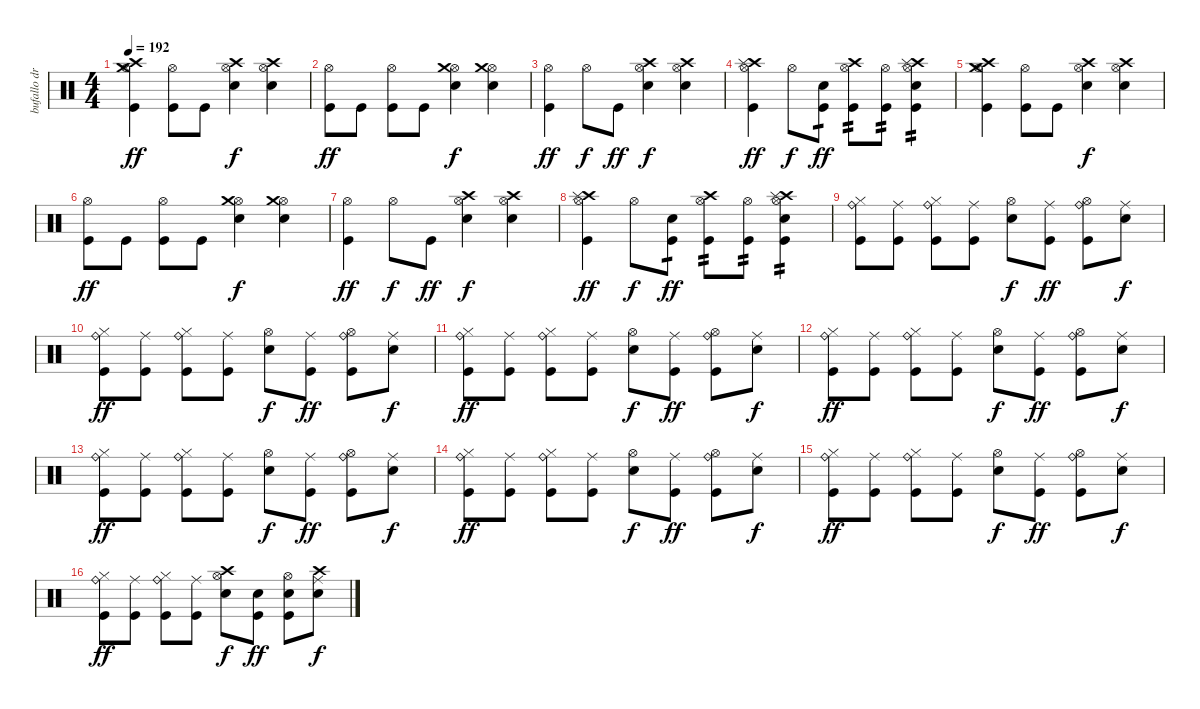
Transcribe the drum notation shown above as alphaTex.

\track ("bufallo drums" "bufallo dr") {instrument percussion}
\staff {score}
\articulation defaults
\ts (4 4)
\tempo 192
\clef neutral
\ks c
("Hi-Hat (open)" "Crash medium (hit)" "Crash high (hit)" "Kick (hit)").4{dy ff} ("Hi-Hat (open)" "Kick (hit)").8 "Kick (hit)".8 ("Hi-Hat (open)" "Electric Snare (hit)" "Crash high (hit)").4{dy f} ("Hi-Hat (open)" "Electric Snare (hit)" "Crash high (hit)").4 |
("Hi-Hat (open)" "Kick (hit)").8{dy ff} "Kick (hit)".8 ("Hi-Hat (open)" "Kick (hit)").8 "Kick (hit)".8 ("Hi-Hat (open)" "Electric Snare (hit)" "Crash medium (hit)").4{dy f} ("Hi-Hat (open)" "Electric Snare (hit)" "Crash medium (hit)").4 |
("Hi-Hat (open)" "Kick (hit)").4{dy ff} "Hi-Hat (open)".8{dy f} "Kick (hit)".8{dy ff} ("Hi-Hat (open)" "Electric Snare (hit)" "Crash high (hit)").4{dy f} ("Hi-Hat (open)" "Electric Snare (hit)" "Crash high (hit)").4 |
("Hi-Hat (open)" "Crash high (hit)" "Splash (hit)" "Kick (hit)").4{dy ff} "Hi-Hat (open)".8{dy f} ("Electric Snare (hit)" "Kick (hit)").8{tp 1 dy ff} ("Hi-Hat (open)" "Crash high (hit)" "Kick (hit)").8{tp 2} ("Hi-Hat (open)" "Kick (hit)").8{tp 2} ("Hi-Hat (open)" "Crash high (hit)" "Splash (hit)" "Electric Snare (hit)" "Kick (hit)").4{tp 2} |
("Hi-Hat (open)" "Crash medium (hit)" "Crash high (hit)" "Kick (hit)").4 ("Hi-Hat (open)" "Kick (hit)").8 "Kick (hit)".8 ("Hi-Hat (open)" "Electric Snare (hit)" "Crash high (hit)").4{dy f} ("Hi-Hat (open)" "Electric Snare (hit)" "Crash high (hit)").4 |
("Hi-Hat (open)" "Kick (hit)").8{dy ff} "Kick (hit)".8 ("Hi-Hat (open)" "Kick (hit)").8 "Kick (hit)".8 ("Hi-Hat (open)" "Electric Snare (hit)" "Crash medium (hit)").4{dy f} ("Hi-Hat (open)" "Electric Snare (hit)" "Crash medium (hit)").4 |
("Hi-Hat (open)" "Kick (hit)").4{dy ff} "Hi-Hat (open)".8{dy f} "Kick (hit)".8{dy ff} ("Hi-Hat (open)" "Electric Snare (hit)" "Crash high (hit)").4{dy f} ("Hi-Hat (open)" "Electric Snare (hit)" "Crash high (hit)").4 |
("Hi-Hat (open)" "Crash high (hit)" "Splash (hit)" "Kick (hit)").4{dy ff} "Hi-Hat (open)".8{dy f} ("Electric Snare (hit)" "Kick (hit)").8{tp 1 dy ff} ("Hi-Hat (open)" "Crash high (hit)" "Kick (hit)").8{tp 2} ("Hi-Hat (open)" "Kick (hit)").8{tp 2} ("Hi-Hat (open)" "Crash high (hit)" "Splash (hit)" "Electric Snare (hit)" "Kick (hit)").4{tp 2} |
("Hi-Hat (closed)" "Ride (bell)" "Kick (hit)").8 ("Ride (middle)" "Kick (hit)").8 ("Hi-Hat (closed)" "Ride (bell)" "Kick (hit)").8 ("Ride (middle)" "Kick (hit)").8 ("Hi-Hat (open)" "Electric Snare (hit)").8{dy f} ("Ride (middle)" "Kick (hit)").8{dy ff} ("Hi-Hat (open)" "Ride (bell)" "Kick (hit)").8 ("Ride (middle)" "Electric Snare (hit)").8{dy f} |
("Hi-Hat (closed)" "Ride (bell)" "Kick (hit)").8{dy ff} ("Ride (middle)" "Kick (hit)").8 ("Hi-Hat (closed)" "Ride (bell)" "Kick (hit)").8 ("Ride (middle)" "Kick (hit)").8 ("Hi-Hat (open)" "Electric Snare (hit)").8{dy f} ("Ride (middle)" "Kick (hit)").8{dy ff} ("Hi-Hat (open)" "Ride (bell)" "Kick (hit)").8 ("Ride (middle)" "Electric Snare (hit)").8{dy f} |
("Hi-Hat (closed)" "Ride (bell)" "Kick (hit)").8{dy ff} ("Ride (middle)" "Kick (hit)").8 ("Hi-Hat (closed)" "Ride (bell)" "Kick (hit)").8 ("Ride (middle)" "Kick (hit)").8 ("Hi-Hat (open)" "Electric Snare (hit)").8{dy f} ("Ride (middle)" "Kick (hit)").8{dy ff} ("Hi-Hat (open)" "Ride (bell)" "Kick (hit)").8 ("Ride (middle)" "Electric Snare (hit)").8{dy f} |
("Hi-Hat (closed)" "Ride (bell)" "Kick (hit)").8{dy ff} ("Ride (middle)" "Kick (hit)").8 ("Hi-Hat (closed)" "Ride (bell)" "Kick (hit)").8 ("Ride (middle)" "Kick (hit)").8 ("Hi-Hat (open)" "Electric Snare (hit)").8{dy f} ("Ride (middle)" "Kick (hit)").8{dy ff} ("Hi-Hat (open)" "Ride (bell)" "Kick (hit)").8 ("Ride (middle)" "Electric Snare (hit)").8{dy f} |
("Hi-Hat (closed)" "Ride (bell)" "Kick (hit)").8{dy ff} ("Ride (middle)" "Kick (hit)").8 ("Hi-Hat (closed)" "Ride (bell)" "Kick (hit)").8 ("Ride (middle)" "Kick (hit)").8 ("Hi-Hat (open)" "Electric Snare (hit)").8{dy f} ("Ride (middle)" "Kick (hit)").8{dy ff} ("Hi-Hat (open)" "Ride (bell)" "Kick (hit)").8 ("Ride (middle)" "Electric Snare (hit)").8{dy f} |
("Hi-Hat (closed)" "Ride (bell)" "Kick (hit)").8{dy ff} ("Ride (middle)" "Kick (hit)").8 ("Hi-Hat (closed)" "Ride (bell)" "Kick (hit)").8 ("Ride (middle)" "Kick (hit)").8 ("Hi-Hat (open)" "Electric Snare (hit)").8{dy f} ("Ride (middle)" "Kick (hit)").8{dy ff} ("Hi-Hat (open)" "Ride (bell)" "Kick (hit)").8 ("Ride (middle)" "Electric Snare (hit)").8{dy f} |
("Hi-Hat (closed)" "Ride (bell)" "Kick (hit)").8{dy ff} ("Ride (middle)" "Kick (hit)").8 ("Hi-Hat (closed)" "Ride (bell)" "Kick (hit)").8 ("Ride (middle)" "Kick (hit)").8 ("Hi-Hat (open)" "Electric Snare (hit)").8{dy f} ("Ride (middle)" "Kick (hit)").8{dy ff} ("Hi-Hat (open)" "Ride (bell)" "Kick (hit)").8 ("Ride (middle)" "Electric Snare (hit)").8{dy f} |
("Hi-Hat (closed)" "Ride (bell)" "Kick (hit)").8{dy ff} ("Ride (middle)" "Kick (hit)").8 ("Hi-Hat (closed)" "Ride (bell)" "Kick (hit)").8 ("Ride (middle)" "Kick (hit)").8 ("Hi-Hat (open)" "Electric Snare (hit)" "Crash high (hit)").8{dy f} ("Electric Snare (hit)" "Kick (hit)").8{dy ff} ("Hi-Hat (open)" "Electric Snare (hit)" "Kick (hit)").8 ("Ride (middle)" "Electric Snare (hit)" "Crash high (hit)").8{dy f}
